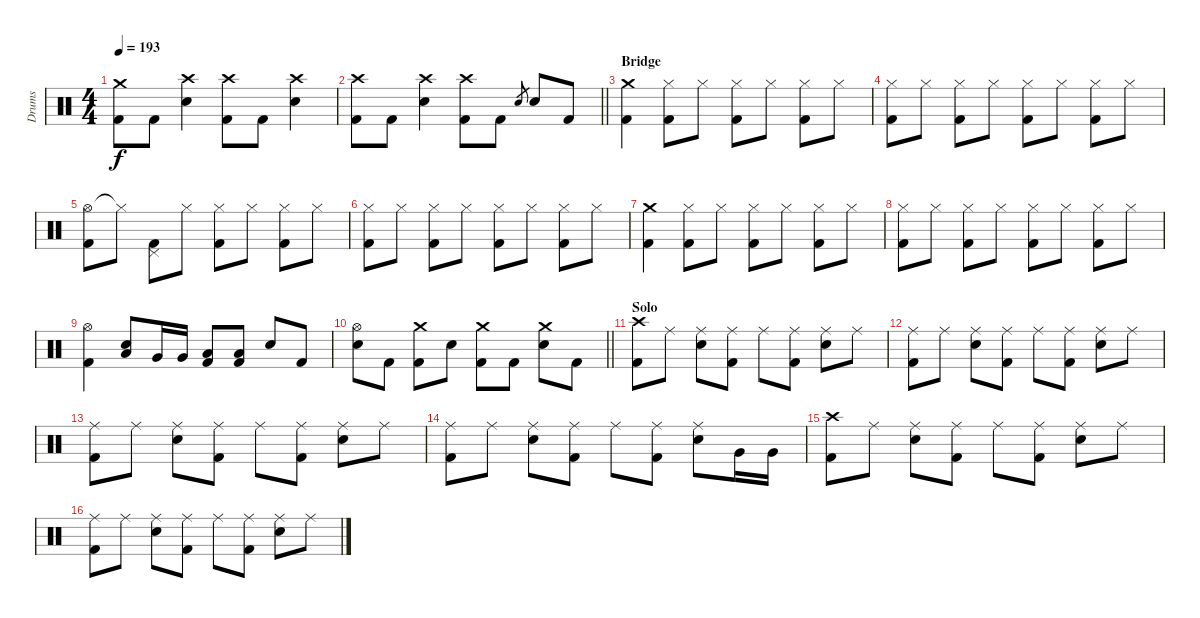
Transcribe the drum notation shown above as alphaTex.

\track ("Drums" "Drums") {instrument percussion}
\staff {score}
\articulation defaults
\ts (4 4)
\tempo 193
\clef neutral
\ks c
("Crash medium (hit)" "Kick (hit) 2").8{dy f} "Kick (hit) 2".8 ("Crash high (hit)" "Electric Snare (hit)").4 ("Crash high (hit)" "Kick (hit) 2").8 "Kick (hit) 2".8 ("Crash high (hit)" "Electric Snare (hit)").4 |
\barLineRight lightlight
("Crash high (hit)" "Kick (hit) 2").8 "Kick (hit) 2".8 ("Crash high (hit)" "Electric Snare (hit)").4 ("Crash high (hit)" "Kick (hit) 2").8 "Kick (hit) 2".8 "Electric Snare (hit)".8{gr} "Electric Snare (hit)".8 "Kick (hit) 2".8 |
\section ("" "Bridge")
("Crash medium (hit)" "Kick (hit) 2").4 ("Hi-Hat (closed)" "Kick (hit) 2").8 "Hi-Hat (closed)".8 ("Hi-Hat (closed)" "Kick (hit) 2").8 "Hi-Hat (closed)".8 ("Hi-Hat (closed)" "Kick (hit) 2").8 "Hi-Hat (closed)".8 |
("Hi-Hat (closed)" "Kick (hit) 2").8 "Hi-Hat (closed)".8 ("Hi-Hat (closed)" "Kick (hit) 2").8 "Hi-Hat (closed)".8 ("Hi-Hat (closed)" "Kick (hit) 2").8 "Hi-Hat (closed)".8 ("Hi-Hat (closed)" "Kick (hit) 2").8 "Hi-Hat (closed)".8 |
("Hi-Hat (open)" "Kick (hit) 2").8 "Hi-Hat (closed)"{t}.8 ("Pedal Hi-Hat (hit)" "Kick (hit) 2").8 "Hi-Hat (closed)".8 ("Hi-Hat (closed)" "Kick (hit) 2").8 "Hi-Hat (closed)".8 ("Hi-Hat (closed)" "Kick (hit) 2").8 "Hi-Hat (closed)".8 |
("Hi-Hat (closed)" "Kick (hit) 2").8 "Hi-Hat (closed)".8 ("Hi-Hat (closed)" "Kick (hit) 2").8 "Hi-Hat (closed)".8 ("Hi-Hat (closed)" "Kick (hit) 2").8 "Hi-Hat (closed)".8 ("Hi-Hat (closed)" "Kick (hit) 2").8 "Hi-Hat (closed)".8 |
("Crash medium (hit)" "Kick (hit) 2").4 ("Hi-Hat (closed)" "Kick (hit) 2").8 "Hi-Hat (closed)".8 ("Hi-Hat (closed)" "Kick (hit) 2").8 "Hi-Hat (closed)".8 ("Hi-Hat (closed)" "Kick (hit) 2").8 "Hi-Hat (closed)".8 |
("Hi-Hat (closed)" "Kick (hit) 2").8 "Hi-Hat (closed)".8 ("Hi-Hat (closed)" "Kick (hit) 2").8 "Hi-Hat (closed)".8 ("Hi-Hat (closed)" "Kick (hit) 2").8 "Hi-Hat (closed)".8 ("Hi-Hat (closed)" "Kick (hit) 2").8 "Hi-Hat (closed)".8 |
("Hi-Hat (open)" "Kick (hit) 2").4 ("Low Floor Tom (hit)" "Electric Snare (hit)").8 "Very Low Tom (hit)".16 "Very Low Tom (hit)".16 ("Low Floor Tom (hit)" "Kick (hit) 2").8 ("Low Floor Tom (hit)" "Kick (hit) 2").8 "Electric Snare (hit)".8 "Kick (hit) 2".8 |
\barLineRight lightlight
("Hi-Hat (open)" "Electric Snare (hit)").8 "Kick (hit) 2".8 ("Crash medium (hit)" "Kick (hit) 2").8 "Electric Snare (hit)".8 ("Crash medium (hit)" "Kick (hit) 2").8 "Kick (hit) 2".8 ("Crash medium (hit)" "Electric Snare (hit)").8 "Kick (hit) 2".8 |
\section ("" "Solo")
("Crash high (hit)" "Kick (hit) 2").8 "Ride (middle)".8 ("Ride (middle)" "Electric Snare (hit)").8 ("Ride (middle)" "Kick (hit) 2").8 "Ride (middle)".8 ("Ride (middle)" "Kick (hit) 2").8 ("Ride (middle)" "Electric Snare (hit)").8 "Ride (middle)".8 |
("Ride (middle)" "Kick (hit) 2").8 "Ride (middle)".8 ("Ride (middle)" "Electric Snare (hit)").8 ("Ride (middle)" "Kick (hit) 2").8 "Ride (middle)".8 ("Ride (middle)" "Kick (hit) 2").8 ("Ride (middle)" "Electric Snare (hit)").8 "Ride (middle)".8 |
("Ride (middle)" "Kick (hit) 2").8 "Ride (middle)".8 ("Ride (middle)" "Electric Snare (hit)").8 ("Ride (middle)" "Kick (hit) 2").8 "Ride (middle)".8 ("Ride (middle)" "Kick (hit) 2").8 ("Ride (middle)" "Electric Snare (hit)").8 "Ride (middle)".8 |
("Ride (middle)" "Kick (hit) 2").8 "Ride (middle)".8 ("Ride (middle)" "Electric Snare (hit)").8 ("Ride (middle)" "Kick (hit) 2").8 "Ride (middle)".8 ("Ride (middle)" "Kick (hit) 2").8 ("Ride (middle)" "Electric Snare (hit)").8 "Very Low Tom (hit)".16 "Very Low Tom (hit)".16 |
("Crash high (hit)" "Kick (hit) 2").8 "Ride (middle)".8 ("Ride (middle)" "Electric Snare (hit)").8 ("Ride (middle)" "Kick (hit) 2").8 "Ride (middle)".8 ("Ride (middle)" "Kick (hit) 2").8 ("Ride (middle)" "Electric Snare (hit)").8 "Ride (middle)".8 |
("Ride (middle)" "Kick (hit) 2").8 "Ride (middle)".8 ("Ride (middle)" "Electric Snare (hit)").8 ("Ride (middle)" "Kick (hit) 2").8 "Ride (middle)".8 ("Ride (middle)" "Kick (hit) 2").8 ("Ride (middle)" "Electric Snare (hit)").8 "Ride (middle)".8
